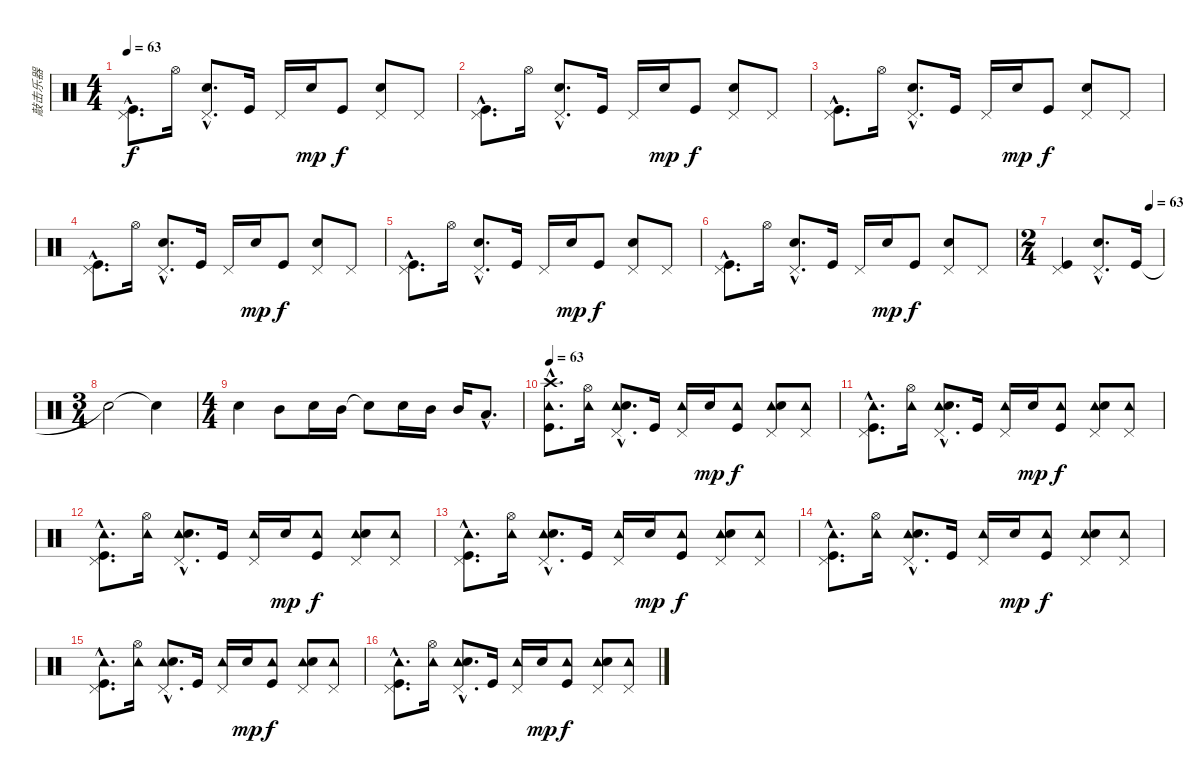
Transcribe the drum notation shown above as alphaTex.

\track ("敲击乐器" "敲击乐器") {instrument percussion}
\staff {score}
\articulation defaults
\ts (4 4)
\tempo 63
\clef neutral
\ks c
("Pedal Hi-Hat (hit)"{hac} "Kick (hit)"{hac}).8{d dy f} "Hi-Hat (open)".16 ("Pedal Hi-Hat (hit)"{hac} "Snare (hit) 2"{hac}).8{d} "Kick (hit)".16 "Pedal Hi-Hat (hit)".16 "Electric Snare (hit)".16{dy mp} "Kick (hit)".8{dy f} ("Pedal Hi-Hat (hit)" "Snare (hit) 2").8 "Pedal Hi-Hat (hit)".8 |
("Pedal Hi-Hat (hit)"{hac} "Kick (hit)"{hac}).8{d} "Hi-Hat (open)".16 ("Pedal Hi-Hat (hit)"{hac} "Snare (hit) 2"{hac}).8{d} "Kick (hit)".16 "Pedal Hi-Hat (hit)".16 "Electric Snare (hit)".16{dy mp} "Kick (hit)".8{dy f} ("Pedal Hi-Hat (hit)" "Snare (hit) 2").8 "Pedal Hi-Hat (hit)".8 |
("Pedal Hi-Hat (hit)"{hac} "Kick (hit)"{hac}).8{d} "Hi-Hat (open)".16 ("Pedal Hi-Hat (hit)"{hac} "Snare (hit) 2"{hac}).8{d} "Kick (hit)".16 "Pedal Hi-Hat (hit)".16 "Electric Snare (hit)".16{dy mp} "Kick (hit)".8{dy f} ("Pedal Hi-Hat (hit)" "Snare (hit) 2").8 "Pedal Hi-Hat (hit)".8 |
("Pedal Hi-Hat (hit)"{hac} "Kick (hit)"{hac}).8{d} "Hi-Hat (open)".16 ("Pedal Hi-Hat (hit)"{hac} "Snare (hit) 2"{hac}).8{d} "Kick (hit)".16 "Pedal Hi-Hat (hit)".16 "Electric Snare (hit)".16{dy mp} "Kick (hit)".8{dy f} ("Pedal Hi-Hat (hit)" "Snare (hit) 2").8 "Pedal Hi-Hat (hit)".8 |
("Pedal Hi-Hat (hit)"{hac} "Kick (hit)"{hac}).8{d} "Hi-Hat (open)".16 ("Pedal Hi-Hat (hit)"{hac} "Snare (hit) 2"{hac}).8{d} "Kick (hit)".16 "Pedal Hi-Hat (hit)".16 "Electric Snare (hit)".16{dy mp} "Kick (hit)".8{dy f} ("Pedal Hi-Hat (hit)" "Snare (hit) 2").8 "Pedal Hi-Hat (hit)".8 |
("Pedal Hi-Hat (hit)"{hac} "Kick (hit)"{hac}).8{d} "Hi-Hat (open)".16 ("Pedal Hi-Hat (hit)"{hac} "Snare (hit) 2"{hac}).8{d} "Kick (hit)".16 "Pedal Hi-Hat (hit)".16 "Electric Snare (hit)".16{dy mp} "Kick (hit)".8{dy f} ("Pedal Hi-Hat (hit)" "Snare (hit) 2").8 "Pedal Hi-Hat (hit)".8 |
\ts (2 4)
\tempo (63 0.875)
("Pedal Hi-Hat (hit)" "Kick (hit)").4 ("Pedal Hi-Hat (hit)"{hac} "Snare (hit) 2"{hac}).8{d} "Kick (hit)".16 |
\ts (3 4)
"Snare (hit)"{t}.2 "Snare (hit)"{t}.4 |
\ts (4 4)
"Snare (hit) 2".4 "Mid Tom (hit)".8 "Snare (hit) 2".16 "Mid Tom (hit)".16 "Snare (hit)"{t}.8 "Snare (hit) 2".16 "Mid Tom (hit)".16 "Mid Tom (hit)".16 "Low Tom (hit)"{hac}.8{d} |
\tempo 63
("Crash high (hit)"{hac} "Tambourine (hit)"{hac} "Kick (hit)"{hac}).8{d} ("Hi-Hat (open)" "Tambourine (hit)").16 ("Pedal Hi-Hat (hit)"{hac} "Tambourine (hit)"{hac} "Snare (hit) 2"{hac}).8{d} "Kick (hit)".16 ("Pedal Hi-Hat (hit)" "Tambourine (hit)").16 "Electric Snare (hit)".16{dy mp} ("Tambourine (hit)" "Kick (hit)").8{dy f} ("Pedal Hi-Hat (hit)" "Tambourine (hit)" "Snare (hit) 2").8 ("Pedal Hi-Hat (hit)" "Tambourine (hit)").8 |
("Pedal Hi-Hat (hit)"{hac} "Tambourine (hit)"{hac} "Kick (hit)"{hac}).8{d} ("Hi-Hat (open)" "Tambourine (hit)").16 ("Pedal Hi-Hat (hit)"{hac} "Tambourine (hit)"{hac} "Snare (hit) 2"{hac}).8{d} "Kick (hit)".16 ("Pedal Hi-Hat (hit)" "Tambourine (hit)").16 "Electric Snare (hit)".16{dy mp} ("Tambourine (hit)" "Kick (hit)").8{dy f} ("Pedal Hi-Hat (hit)" "Tambourine (hit)" "Snare (hit) 2").8 ("Pedal Hi-Hat (hit)" "Tambourine (hit)").8 |
("Pedal Hi-Hat (hit)"{hac} "Tambourine (hit)"{hac} "Kick (hit)"{hac}).8{d} ("Hi-Hat (open)" "Tambourine (hit)").16 ("Pedal Hi-Hat (hit)"{hac} "Tambourine (hit)"{hac} "Snare (hit) 2"{hac}).8{d} "Kick (hit)".16 ("Pedal Hi-Hat (hit)" "Tambourine (hit)").16 "Electric Snare (hit)".16{dy mp} ("Tambourine (hit)" "Kick (hit)").8{dy f} ("Pedal Hi-Hat (hit)" "Tambourine (hit)" "Snare (hit) 2").8 ("Pedal Hi-Hat (hit)" "Tambourine (hit)").8 |
("Pedal Hi-Hat (hit)"{hac} "Tambourine (hit)"{hac} "Kick (hit)"{hac}).8{d} ("Hi-Hat (open)" "Tambourine (hit)").16 ("Pedal Hi-Hat (hit)"{hac} "Tambourine (hit)"{hac} "Snare (hit) 2"{hac}).8{d} "Kick (hit)".16 ("Pedal Hi-Hat (hit)" "Tambourine (hit)").16 "Electric Snare (hit)".16{dy mp} ("Tambourine (hit)" "Kick (hit)").8{dy f} ("Pedal Hi-Hat (hit)" "Tambourine (hit)" "Snare (hit) 2").8 ("Pedal Hi-Hat (hit)" "Tambourine (hit)").8 |
("Pedal Hi-Hat (hit)"{hac} "Tambourine (hit)"{hac} "Kick (hit)"{hac}).8{d} ("Hi-Hat (open)" "Tambourine (hit)").16 ("Pedal Hi-Hat (hit)"{hac} "Tambourine (hit)"{hac} "Snare (hit) 2"{hac}).8{d} "Kick (hit)".16 ("Pedal Hi-Hat (hit)" "Tambourine (hit)").16 "Electric Snare (hit)".16{dy mp} ("Tambourine (hit)" "Kick (hit)").8{dy f} ("Pedal Hi-Hat (hit)" "Tambourine (hit)" "Snare (hit) 2").8 ("Pedal Hi-Hat (hit)" "Tambourine (hit)").8 |
("Pedal Hi-Hat (hit)"{hac} "Tambourine (hit)"{hac} "Kick (hit)"{hac}).8{d} ("Hi-Hat (open)" "Tambourine (hit)").16 ("Pedal Hi-Hat (hit)"{hac} "Tambourine (hit)"{hac} "Snare (hit) 2"{hac}).8{d} "Kick (hit)".16 ("Pedal Hi-Hat (hit)" "Tambourine (hit)").16 "Electric Snare (hit)".16{dy mp} ("Tambourine (hit)" "Kick (hit)").8{dy f} ("Pedal Hi-Hat (hit)" "Tambourine (hit)" "Snare (hit) 2").8 ("Pedal Hi-Hat (hit)" "Tambourine (hit)").8 |
("Pedal Hi-Hat (hit)"{hac} "Tambourine (hit)"{hac} "Kick (hit)"{hac}).8{d} ("Hi-Hat (open)" "Tambourine (hit)").16 ("Pedal Hi-Hat (hit)"{hac} "Tambourine (hit)"{hac} "Snare (hit) 2"{hac}).8{d} "Kick (hit)".16 ("Pedal Hi-Hat (hit)" "Tambourine (hit)").16 "Electric Snare (hit)".16{dy mp} ("Tambourine (hit)" "Kick (hit)").8{dy f} ("Pedal Hi-Hat (hit)" "Tambourine (hit)" "Snare (hit) 2").8 ("Pedal Hi-Hat (hit)" "Tambourine (hit)").8
